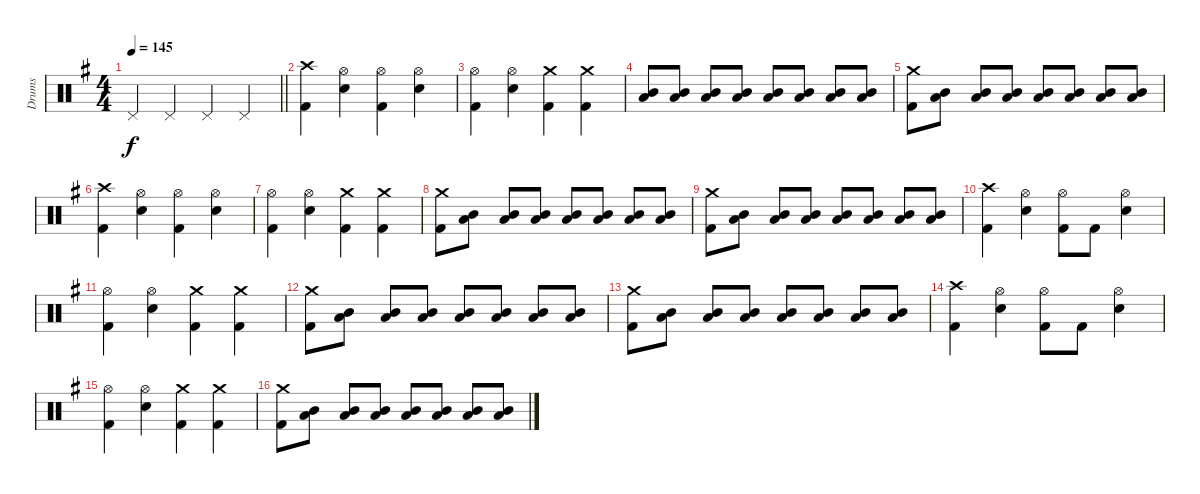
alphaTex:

\track ("Drums" "Drums") {instrument percussion}
\staff {score}
\articulation defaults
\ts (4 4)
\tempo 145
\clef neutral
\barLineRight lightlight
\ks eminor "Pedal Hi-Hat (hit)".4{dy f} "Pedal Hi-Hat (hit)".4 "Pedal Hi-Hat (hit)".4 "Pedal Hi-Hat (hit)".4
|
("Crash high (hit)" "Kick (hit) 2").4 ("Hi-Hat (open)" "Electric Snare (hit)").4 ("Hi-Hat (open)" "Kick (hit) 2").4 ("Hi-Hat (open)" "Electric Snare (hit)").4 |
("Hi-Hat (open)" "Kick (hit) 2").4 ("Electric Snare (hit)" "Hi-Hat (open)").4 ("Crash medium (hit)" "Kick (hit) 2").4 ("Crash medium (hit)" "Kick (hit) 2").4 |
("Low Tom (hit)" "Mid Tom (hit)").8 ("Low Tom (hit)" "Mid Tom (hit)").8 ("Low Tom (hit)" "Mid Tom (hit)").8 ("Low Tom (hit)" "Mid Tom (hit)").8 ("Low Tom (hit)" "Mid Tom (hit)").8 ("Low Tom (hit)" "Mid Tom (hit)").8 ("Low Tom (hit)" "Mid Tom (hit)").8 ("Low Tom (hit)" "Mid Tom (hit)").8 |
("Crash medium (hit)" "Kick (hit) 2").8 ("Low Tom (hit)" "Mid Tom (hit)").8 ("Low Tom (hit)" "Mid Tom (hit)").8 ("Low Tom (hit)" "Mid Tom (hit)").8 ("Low Tom (hit)" "Mid Tom (hit)").8 ("Low Tom (hit)" "Mid Tom (hit)").8 ("Low Tom (hit)" "Mid Tom (hit)").8 ("Low Tom (hit)" "Mid Tom (hit)").8 |
("Crash high (hit)" "Kick (hit) 2").4 ("Hi-Hat (open)" "Electric Snare (hit)").4 ("Hi-Hat (open)" "Kick (hit) 2").4 ("Hi-Hat (open)" "Electric Snare (hit)").4 |
("Hi-Hat (open)" "Kick (hit) 2").4 ("Electric Snare (hit)" "Hi-Hat (open)").4 ("Crash medium (hit)" "Kick (hit) 2").4 ("Crash medium (hit)" "Kick (hit) 2").4 |
("Crash medium (hit)" "Kick (hit) 2").8 ("Low Tom (hit)" "Mid Tom (hit)").8 ("Low Tom (hit)" "Mid Tom (hit)").8 ("Low Tom (hit)" "Mid Tom (hit)").8 ("Low Tom (hit)" "Mid Tom (hit)").8 ("Low Tom (hit)" "Mid Tom (hit)").8 ("Low Tom (hit)" "Mid Tom (hit)").8 ("Low Tom (hit)" "Mid Tom (hit)").8 |
("Crash medium (hit)" "Kick (hit) 2").8 ("Low Tom (hit)" "Mid Tom (hit)").8 ("Low Tom (hit)" "Mid Tom (hit)").8 ("Low Tom (hit)" "Mid Tom (hit)").8 ("Low Tom (hit)" "Mid Tom (hit)").8 ("Low Tom (hit)" "Mid Tom (hit)").8 ("Low Tom (hit)" "Mid Tom (hit)").8 ("Low Tom (hit)" "Mid Tom (hit)").8 |
("Crash high (hit)" "Kick (hit) 2").4 ("Hi-Hat (open)" "Electric Snare (hit)").4 ("Hi-Hat (open)" "Kick (hit) 2").8 "Kick (hit) 2".8 ("Hi-Hat (open)" "Electric Snare (hit)").4 |
("Hi-Hat (open)" "Kick (hit) 2").4 ("Electric Snare (hit)" "Hi-Hat (open)").4 ("Crash medium (hit)" "Kick (hit) 2").4 ("Crash medium (hit)" "Kick (hit) 2").4 |
("Crash medium (hit)" "Kick (hit) 2").8 ("Low Tom (hit)" "Mid Tom (hit)").8 ("Low Tom (hit)" "Mid Tom (hit)").8 ("Low Tom (hit)" "Mid Tom (hit)").8 ("Low Tom (hit)" "Mid Tom (hit)").8 ("Low Tom (hit)" "Mid Tom (hit)").8 ("Low Tom (hit)" "Mid Tom (hit)").8 ("Low Tom (hit)" "Mid Tom (hit)").8 |
("Crash medium (hit)" "Kick (hit) 2").8 ("Low Tom (hit)" "Mid Tom (hit)").8 ("Low Tom (hit)" "Mid Tom (hit)").8 ("Low Tom (hit)" "Mid Tom (hit)").8 ("Low Tom (hit)" "Mid Tom (hit)").8 ("Low Tom (hit)" "Mid Tom (hit)").8 ("Low Tom (hit)" "Mid Tom (hit)").8 ("Low Tom (hit)" "Mid Tom (hit)").8 |
("Crash high (hit)" "Kick (hit) 2").4 ("Hi-Hat (open)" "Electric Snare (hit)").4 ("Hi-Hat (open)" "Kick (hit) 2").8 "Kick (hit) 2".8 ("Hi-Hat (open)" "Electric Snare (hit)").4 |
("Hi-Hat (open)" "Kick (hit) 2").4 ("Electric Snare (hit)" "Hi-Hat (open)").4 ("Crash medium (hit)" "Kick (hit) 2").4 ("Crash medium (hit)" "Kick (hit) 2").4 |
("Crash medium (hit)" "Kick (hit) 2").8 ("Low Tom (hit)" "Mid Tom (hit)").8 ("Low Tom (hit)" "Mid Tom (hit)").8 ("Low Tom (hit)" "Mid Tom (hit)").8 ("Low Tom (hit)" "Mid Tom (hit)").8 ("Low Tom (hit)" "Mid Tom (hit)").8 ("Low Tom (hit)" "Mid Tom (hit)").8 ("Low Tom (hit)" "Mid Tom (hit)").8
